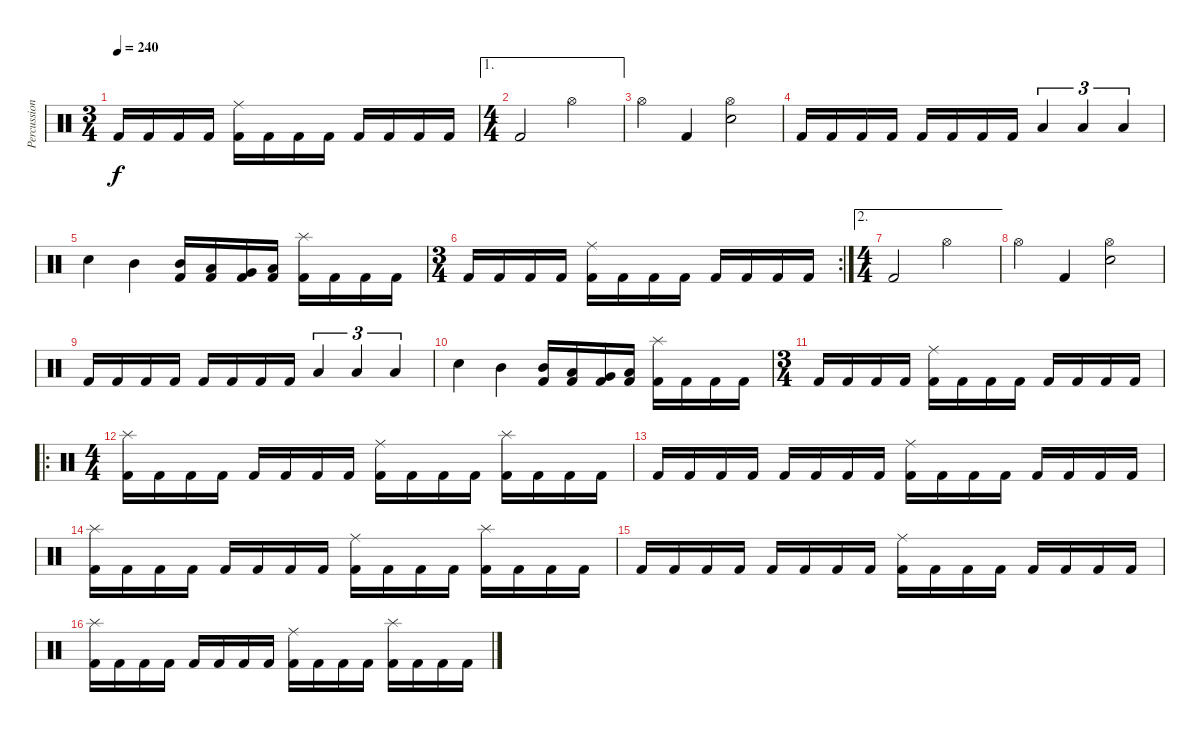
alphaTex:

\track ("Percussion" "Percussion") {instrument percussion}
\staff {score}
\articulation defaults
\ts (3 4)
\tempo 240
\clef neutral
\ks c "Kick (hit) 2".16{dy f} "Kick (hit) 2".16 "Kick (hit) 2".16 "Kick (hit) 2".16
("Kick (hit) 2" "Ride (middle)").16 "Kick (hit) 2".16 "Kick (hit) 2".16 "Kick (hit) 2".16 "Kick (hit) 2".16 "Kick (hit) 2".16 "Kick (hit) 2".16 "Kick (hit) 2".16 |
\ae 1
\ts (4 4)
"Kick (hit) 2".2 "Hi-Hat (open)".2 |
"Hi-Hat (open)".4 "Kick (hit) 2".4 ("Electric Snare (hit)" "Hi-Hat (open)").2 |
"Kick (hit) 2".16 "Kick (hit) 2".16 "Kick (hit) 2".16 "Kick (hit) 2".16 "Kick (hit) 2".16 "Kick (hit) 2".16 "Kick (hit) 2".16 "Kick (hit) 2".16 "Low Floor Tom (hit)".4{tu (3 2)} "Low Floor Tom (hit)".4{tu (3 2)} "Low Floor Tom (hit)".4{tu (3 2)} |
"Electric Snare (hit)".4 "Mid Tom (hit)".4 ("Kick (hit) 2" "Mid Tom (hit)").16 ("Kick (hit) 2" "Low Tom (hit)").16 ("Kick (hit) 2" "Very Low Tom (hit)").16 ("Kick (hit) 2" "Low Floor Tom (hit)").16 ("Kick (hit) 2" "Splash (hit)").16 "Kick (hit) 2".16 "Kick (hit) 2".16 "Kick (hit) 2".16 |
\rc 2
\ts (3 4)
"Kick (hit) 2".16 "Kick (hit) 2".16 "Kick (hit) 2".16 "Kick (hit) 2".16 ("Kick (hit) 2" "Ride (middle)").16 "Kick (hit) 2".16 "Kick (hit) 2".16 "Kick (hit) 2".16 "Kick (hit) 2".16 "Kick (hit) 2".16 "Kick (hit) 2".16 "Kick (hit) 2".16 |
\ae 2
\ts (4 4)
"Kick (hit) 2".2 "Hi-Hat (open)".2 |
"Hi-Hat (open)".4 "Kick (hit) 2".4 ("Electric Snare (hit)" "Hi-Hat (open)").2 |
"Kick (hit) 2".16 "Kick (hit) 2".16 "Kick (hit) 2".16 "Kick (hit) 2".16 "Kick (hit) 2".16 "Kick (hit) 2".16 "Kick (hit) 2".16 "Kick (hit) 2".16 "Low Floor Tom (hit)".4{tu (3 2)} "Low Floor Tom (hit)".4{tu (3 2)} "Low Floor Tom (hit)".4{tu (3 2)} |
"Electric Snare (hit)".4 "Mid Tom (hit)".4 ("Kick (hit) 2" "Mid Tom (hit)").16 ("Kick (hit) 2" "Low Tom (hit)").16 ("Kick (hit) 2" "Very Low Tom (hit)").16 ("Kick (hit) 2" "Low Floor Tom (hit)").16 ("Kick (hit) 2" "Splash (hit)").16 "Kick (hit) 2".16 "Kick (hit) 2".16 "Kick (hit) 2".16 |
\ts (3 4)
"Kick (hit) 2".16 "Kick (hit) 2".16 "Kick (hit) 2".16 "Kick (hit) 2".16 ("Kick (hit) 2" "Ride (middle)").16 "Kick (hit) 2".16 "Kick (hit) 2".16 "Kick (hit) 2".16 "Kick (hit) 2".16 "Kick (hit) 2".16 "Kick (hit) 2".16 "Kick (hit) 2".16 |
\ro
\ts (4 4)
("Kick (hit) 2" "Splash (hit)").16 "Kick (hit) 2".16 "Kick (hit) 2".16 "Kick (hit) 2".16 "Kick (hit) 2".16 "Kick (hit) 2".16 "Kick (hit) 2".16 "Kick (hit) 2".16 ("Kick (hit) 2" "Ride (middle)").16 "Kick (hit) 2".16 "Kick (hit) 2".16 "Kick (hit) 2".16 ("Kick (hit) 2" "Splash (hit)").16 "Kick (hit) 2".16 "Kick (hit) 2".16 "Kick (hit) 2".16 |
"Kick (hit) 2".16 "Kick (hit) 2".16 "Kick (hit) 2".16 "Kick (hit) 2".16 "Kick (hit) 2".16 "Kick (hit) 2".16 "Kick (hit) 2".16 "Kick (hit) 2".16 ("Kick (hit) 2" "Ride (middle)").16 "Kick (hit) 2".16 "Kick (hit) 2".16 "Kick (hit) 2".16 "Kick (hit) 2".16 "Kick (hit) 2".16 "Kick (hit) 2".16 "Kick (hit) 2".16 |
("Kick (hit) 2" "Splash (hit)").16 "Kick (hit) 2".16 "Kick (hit) 2".16 "Kick (hit) 2".16 "Kick (hit) 2".16 "Kick (hit) 2".16 "Kick (hit) 2".16 "Kick (hit) 2".16 ("Kick (hit) 2" "Ride (middle)").16 "Kick (hit) 2".16 "Kick (hit) 2".16 "Kick (hit) 2".16 ("Kick (hit) 2" "Splash (hit)").16 "Kick (hit) 2".16 "Kick (hit) 2".16 "Kick (hit) 2".16 |
"Kick (hit) 2".16 "Kick (hit) 2".16 "Kick (hit) 2".16 "Kick (hit) 2".16 "Kick (hit) 2".16 "Kick (hit) 2".16 "Kick (hit) 2".16 "Kick (hit) 2".16 ("Kick (hit) 2" "Ride (middle)").16 "Kick (hit) 2".16 "Kick (hit) 2".16 "Kick (hit) 2".16 "Kick (hit) 2".16 "Kick (hit) 2".16 "Kick (hit) 2".16 "Kick (hit) 2".16 |
("Kick (hit) 2" "Splash (hit)").16 "Kick (hit) 2".16 "Kick (hit) 2".16 "Kick (hit) 2".16 "Kick (hit) 2".16 "Kick (hit) 2".16 "Kick (hit) 2".16 "Kick (hit) 2".16 ("Kick (hit) 2" "Ride (middle)").16 "Kick (hit) 2".16 "Kick (hit) 2".16 "Kick (hit) 2".16 ("Kick (hit) 2" "Splash (hit)").16 "Kick (hit) 2".16 "Kick (hit) 2".16 "Kick (hit) 2".16
